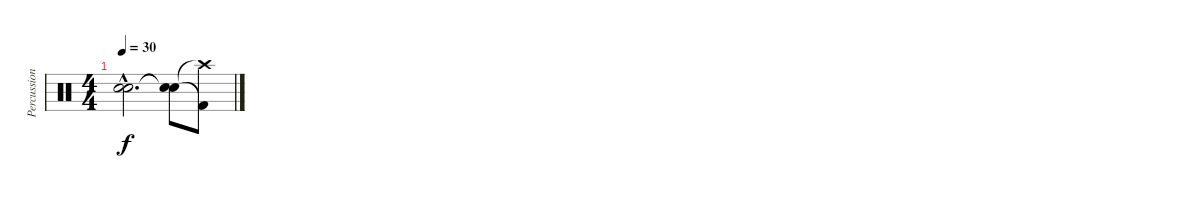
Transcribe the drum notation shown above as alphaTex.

\track ("Percussion" "Percussion") {instrument percussion}
\staff {score}
\articulation defaults
\ts (4 4)
\tempo 30
\clef neutral
\ks c
("Snare (hit)"{hac t} "Snare (hit)"{hac t}).2{d dy f} ("Snare (hit)"{t} "Snare (hit)"{t}).8 ("Crash high (hit)"{t} "Kick (hit) 2"{t}).8
